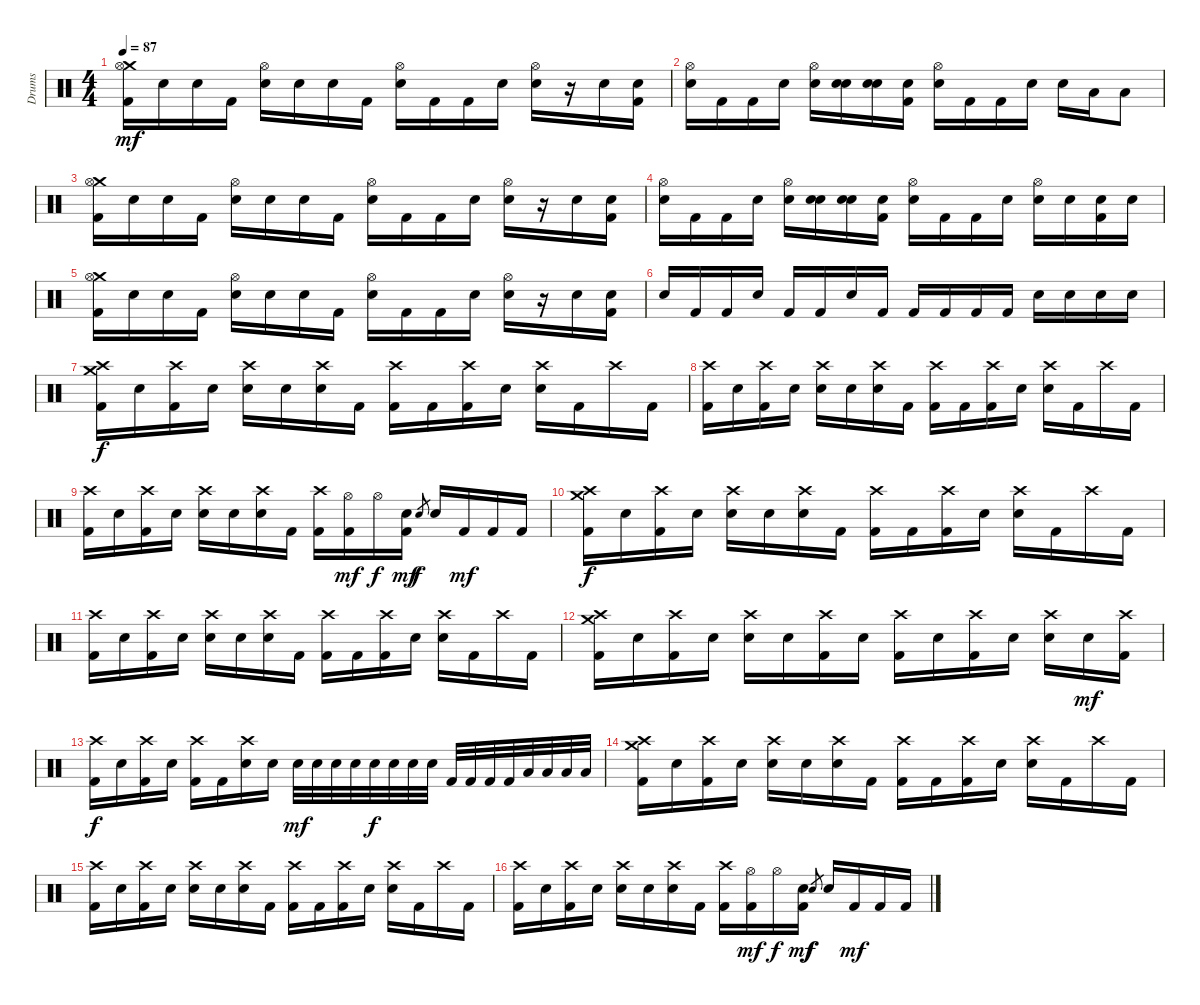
\track ("Drums" "Drums") {instrument percussion}
\staff {score}
\articulation defaults
\ts (4 4)
\tempo 87
\clef neutral
\ks c
("Crash medium (hit)" "Hi-Hat (open)" "Kick (hit) 2").16{dy mf} "Snare (hit)".16 "Snare (hit)".16 "Kick (hit) 2".16 ("Hi-Hat (open)" "Electric Snare (hit)").16 "Snare (hit)".16 "Snare (hit)".16 "Kick (hit) 2".16 ("Hi-Hat (open)" "Snare (hit)").16 "Kick (hit) 2".16 "Kick (hit) 2".16 "Snare (hit)".16 ("Hi-Hat (open)" "Electric Snare (hit)").16 r.16 "Snare (hit)".16 ("Snare (hit)" "Kick (hit) 2").16 |
("Hi-Hat (open)" "Snare (hit)").16 "Kick (hit) 2".16 "Kick (hit) 2".16 "Snare (hit)".16 ("Hi-Hat (open)" "Electric Snare (hit)").16 ("Snare (hit)" "Snare (hit)").16 ("Snare (hit)" "Snare (hit)").16 ("Snare (hit)" "Kick (hit) 2").16 ("Hi-Hat (open)" "Snare (hit)").16 "Kick (hit) 2".16 "Kick (hit) 2".16 "Snare (hit)".16 "Electric Snare (hit)".16 "Low Tom (hit)".16 "Low Tom (hit)".8 |
("Crash medium (hit)" "Hi-Hat (open)" "Kick (hit) 2").16 "Snare (hit)".16 "Snare (hit)".16 "Kick (hit) 2".16 ("Hi-Hat (open)" "Electric Snare (hit)").16 "Snare (hit)".16 "Snare (hit)".16 "Kick (hit) 2".16 ("Hi-Hat (open)" "Snare (hit)").16 "Kick (hit) 2".16 "Kick (hit) 2".16 "Snare (hit)".16 ("Hi-Hat (open)" "Electric Snare (hit)").16 r.16 "Snare (hit)".16 ("Snare (hit)" "Kick (hit) 2").16 |
("Hi-Hat (open)" "Snare (hit)").16 "Kick (hit) 2".16 "Kick (hit) 2".16 "Snare (hit)".16 ("Hi-Hat (open)" "Electric Snare (hit)").16 ("Snare (hit)" "Snare (hit)").16 ("Snare (hit)" "Snare (hit)").16 ("Snare (hit)" "Kick (hit) 2").16 ("Hi-Hat (open)" "Snare (hit)").16 "Kick (hit) 2".16 "Kick (hit) 2".16 "Snare (hit)".16 ("Hi-Hat (open)" "Electric Snare (hit)").16 "Snare (hit)".16 ("Snare (hit)" "Kick (hit) 2").16 "Snare (hit)".16 |
("Crash medium (hit)" "Hi-Hat (open)" "Kick (hit) 2").16 "Snare (hit)".16 "Snare (hit)".16 "Kick (hit) 2".16 ("Hi-Hat (open)" "Electric Snare (hit)").16 "Snare (hit)".16 "Snare (hit)".16 "Kick (hit) 2".16 ("Hi-Hat (open)" "Snare (hit)").16 "Kick (hit) 2".16 "Kick (hit) 2".16 "Snare (hit)".16 ("Hi-Hat (open)" "Electric Snare (hit)").16 r.16 "Snare (hit)".16 ("Snare (hit)" "Kick (hit) 2").16 |
"Electric Snare (hit)".16 "Kick (hit) 2".16 "Kick (hit) 2".16 "Electric Snare (hit)".16 "Kick (hit) 2".16 "Kick (hit) 2".16 "Electric Snare (hit)".16 "Kick (hit) 2".16 "Kick (hit) 2".16 "Kick (hit) 2".16 "Kick (hit) 2".16 "Kick (hit) 2".16 "Electric Snare (hit)".16 "Electric Snare (hit)".16 "Electric Snare (hit)".16 "Electric Snare (hit)".16 |
("Crash medium (hit)" "Crash high (hit)" "Kick (hit) 2").16{dy f} "Snare (hit)".16 ("Crash high (hit)" "Kick (hit) 2").16 "Snare (hit)".16 ("Crash high (hit)" "Electric Snare (hit)").16 "Snare (hit)".16 ("Crash high (hit)" "Snare (hit)").16 "Kick (hit) 2".16 ("Crash high (hit)" "Kick (hit) 2").16 "Kick (hit) 2".16 ("Crash high (hit)" "Kick (hit) 2").16 "Snare (hit)".16 ("Crash high (hit)" "Electric Snare (hit)").16 "Kick (hit) 2".16 "Crash high (hit)".16 "Kick (hit) 2".16 |
("Crash high (hit)" "Kick (hit) 2").16 "Snare (hit)".16 ("Crash high (hit)" "Kick (hit) 2").16 "Snare (hit)".16 ("Crash high (hit)" "Electric Snare (hit)").16 "Snare (hit)".16 ("Crash high (hit)" "Snare (hit)").16 "Kick (hit) 2".16 ("Crash high (hit)" "Kick (hit) 2").16 "Kick (hit) 2".16 ("Crash high (hit)" "Kick (hit) 2").16 "Snare (hit)".16 ("Crash high (hit)" "Electric Snare (hit)").16 "Kick (hit) 2".16 "Crash high (hit)".16 "Kick (hit) 2".16 |
("Crash high (hit)" "Kick (hit) 2").16 "Snare (hit)".16 ("Crash high (hit)" "Kick (hit) 2").16 "Snare (hit)".16 ("Crash high (hit)" "Electric Snare (hit)").16 "Snare (hit)".16 ("Crash high (hit)" "Snare (hit)").16 "Kick (hit) 2".16 ("Crash high (hit)" "Kick (hit) 2").16 ("Hi-Hat (open)" "Kick (hit) 2").16{dy mf} "Hi-Hat (open)".16{dy f} ("Kick (hit) 2" "Snare (hit)").16{dy mf} "Electric Snare (hit)".8{gr dy f} "Electric Snare (hit)".16 "Kick (hit) 2".16{dy mf} "Kick (hit) 2".16 "Kick (hit) 2".16 |
("Crash medium (hit)" "Crash high (hit)" "Kick (hit) 2").16{dy f} "Snare (hit)".16 ("Crash high (hit)" "Kick (hit) 2").16 "Snare (hit)".16 ("Crash high (hit)" "Electric Snare (hit)").16 "Snare (hit)".16 ("Crash high (hit)" "Snare (hit)").16 "Kick (hit) 2".16 ("Crash high (hit)" "Kick (hit) 2").16 "Kick (hit) 2".16 ("Crash high (hit)" "Kick (hit) 2").16 "Snare (hit)".16 ("Crash high (hit)" "Electric Snare (hit)").16 "Kick (hit) 2".16 "Crash high (hit)".16 "Kick (hit) 2".16 |
("Crash high (hit)" "Kick (hit) 2").16 "Snare (hit)".16 ("Crash high (hit)" "Kick (hit) 2").16 "Snare (hit)".16 ("Crash high (hit)" "Electric Snare (hit)").16 "Snare (hit)".16 ("Crash high (hit)" "Snare (hit)").16 "Kick (hit) 2".16 ("Crash high (hit)" "Kick (hit) 2").16 "Kick (hit) 2".16 ("Crash high (hit)" "Kick (hit) 2").16 "Snare (hit)".16 ("Crash high (hit)" "Electric Snare (hit)").16 "Kick (hit) 2".16 "Crash high (hit)".16 "Kick (hit) 2".16 |
("Crash medium (hit)" "Crash high (hit)" "Kick (hit) 2").16 "Snare (hit)".16 ("Crash high (hit)" "Kick (hit) 2").16 "Snare (hit)".16 ("Crash high (hit)" "Electric Snare (hit)").16 "Snare (hit)".16 ("Crash high (hit)" "Kick (hit) 2").16 "Snare (hit)".16 ("Crash high (hit)" "Kick (hit) 2").16 "Snare (hit)".16 ("Crash high (hit)" "Kick (hit) 2").16 "Snare (hit)".16 ("Crash high (hit)" "Electric Snare (hit)").16 "Snare (hit)".16{dy mf} ("Crash high (hit)" "Kick (hit) 2").16 |
("Crash high (hit)" "Kick (hit) 2").16{dy f} "Snare (hit)".16 ("Crash high (hit)" "Kick (hit) 2").16 "Electric Snare (hit)".16 ("Crash high (hit)" "Kick (hit) 2").16 "Kick (hit) 2".16 ("Crash high (hit)" "Electric Snare (hit)").16 "Snare (hit)".16 "Electric Snare (hit)".32{dy mf} "Electric Snare (hit)".32 "Electric Snare (hit)".32 "Electric Snare (hit)".32 "Electric Snare (hit)".32{dy f} "Electric Snare (hit)".32 "Electric Snare (hit)".32 "Electric Snare (hit)".32 "Kick (hit) 2".32 "Kick (hit) 2".32 "Kick (hit) 2".32 "Kick (hit) 2".32 "Low Tom (hit)".32 "Low Tom (hit)".32 "Low Tom (hit)".32 "Low Tom (hit)".32 |
("Crash medium (hit)" "Crash high (hit)" "Kick (hit) 2").16 "Snare (hit)".16 ("Crash high (hit)" "Kick (hit) 2").16 "Snare (hit)".16 ("Crash high (hit)" "Electric Snare (hit)").16 "Snare (hit)".16 ("Crash high (hit)" "Snare (hit)").16 "Kick (hit) 2".16 ("Crash high (hit)" "Kick (hit) 2").16 "Kick (hit) 2".16 ("Crash high (hit)" "Kick (hit) 2").16 "Snare (hit)".16 ("Crash high (hit)" "Electric Snare (hit)").16 "Kick (hit) 2".16 "Crash high (hit)".16 "Kick (hit) 2".16 |
("Crash high (hit)" "Kick (hit) 2").16 "Snare (hit)".16 ("Crash high (hit)" "Kick (hit) 2").16 "Snare (hit)".16 ("Crash high (hit)" "Electric Snare (hit)").16 "Snare (hit)".16 ("Crash high (hit)" "Snare (hit)").16 "Kick (hit) 2".16 ("Crash high (hit)" "Kick (hit) 2").16 "Kick (hit) 2".16 ("Crash high (hit)" "Kick (hit) 2").16 "Snare (hit)".16 ("Crash high (hit)" "Electric Snare (hit)").16 "Kick (hit) 2".16 "Crash high (hit)".16 "Kick (hit) 2".16 |
("Crash high (hit)" "Kick (hit) 2").16 "Snare (hit)".16 ("Crash high (hit)" "Kick (hit) 2").16 "Snare (hit)".16 ("Crash high (hit)" "Electric Snare (hit)").16 "Snare (hit)".16 ("Crash high (hit)" "Snare (hit)").16 "Kick (hit) 2".16 ("Crash high (hit)" "Kick (hit) 2").16 ("Hi-Hat (open)" "Kick (hit) 2").16{dy mf} "Hi-Hat (open)".16{dy f} ("Kick (hit) 2" "Snare (hit)").16{dy mf} "Electric Snare (hit)".8{gr dy f} "Electric Snare (hit)".16 "Kick (hit) 2".16{dy mf} "Kick (hit) 2".16 "Kick (hit) 2".16
